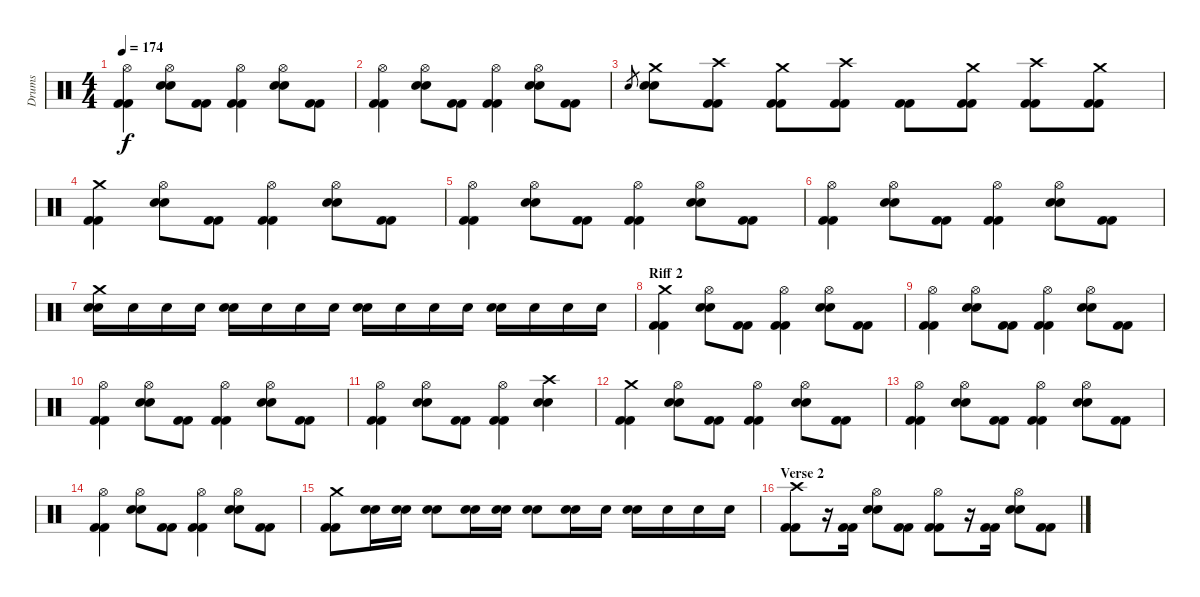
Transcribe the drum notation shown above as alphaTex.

\track ("Drums" "Drums") {instrument percussion}
\staff {score}
\articulation defaults
\ts (4 4)
\tempo 174
\clef neutral
\ks c
("Hi-Hat (open)" "Kick (hit) 2" "Kick (hit) 2").4{dy f} ("Hi-Hat (open)" "Snare (hit) 2" "Snare (hit) 2").8 ("Kick (hit) 2" "Kick (hit) 2").8 ("Hi-Hat (open)" "Kick (hit) 2" "Kick (hit) 2").4 ("Hi-Hat (open)" "Snare (hit) 2" "Snare (hit) 2").8 ("Kick (hit) 2" "Kick (hit) 2").8 |
("Hi-Hat (open)" "Kick (hit) 2" "Kick (hit) 2").4 ("Hi-Hat (open)" "Snare (hit) 2" "Snare (hit) 2").8 ("Kick (hit) 2" "Kick (hit) 2").8 ("Hi-Hat (open)" "Kick (hit) 2" "Kick (hit) 2").4 ("Hi-Hat (open)" "Snare (hit) 2" "Snare (hit) 2").8 ("Kick (hit) 2" "Kick (hit) 2").8 |
"Snare (hit) 2".8{gr} ("Crash medium (hit)" "Snare (hit) 2" "Snare (hit) 2").8 ("Crash high (hit)" "Kick (hit) 2" "Kick (hit) 2").8 ("Crash medium (hit)" "Kick (hit) 2" "Kick (hit) 2").8 ("Crash high (hit)" "Kick (hit) 2" "Kick (hit) 2").8 ("Kick (hit) 2" "Kick (hit) 2").8 ("Crash medium (hit)" "Kick (hit) 2" "Kick (hit) 2").8 ("Crash high (hit)" "Kick (hit) 2" "Kick (hit) 2").8 ("Crash medium (hit)" "Kick (hit) 2" "Kick (hit) 2").8 |
("Crash medium (hit)" "Kick (hit) 2" "Kick (hit) 2").4 ("Hi-Hat (open)" "Snare (hit) 2" "Snare (hit) 2").8 ("Kick (hit) 2" "Kick (hit) 2").8 ("Hi-Hat (open)" "Kick (hit) 2" "Kick (hit) 2").4 ("Hi-Hat (open)" "Snare (hit) 2" "Snare (hit) 2").8 ("Kick (hit) 2" "Kick (hit) 2").8 |
("Hi-Hat (open)" "Kick (hit) 2" "Kick (hit) 2").4 ("Hi-Hat (open)" "Snare (hit) 2" "Snare (hit) 2").8 ("Kick (hit) 2" "Kick (hit) 2").8 ("Hi-Hat (open)" "Kick (hit) 2" "Kick (hit) 2").4 ("Hi-Hat (open)" "Snare (hit) 2" "Snare (hit) 2").8 ("Kick (hit) 2" "Kick (hit) 2").8 |
("Hi-Hat (open)" "Kick (hit) 2" "Kick (hit) 2").4 ("Hi-Hat (open)" "Snare (hit) 2" "Snare (hit) 2").8 ("Kick (hit) 2" "Kick (hit) 2").8 ("Hi-Hat (open)" "Kick (hit) 2" "Kick (hit) 2").4 ("Hi-Hat (open)" "Snare (hit) 2" "Snare (hit) 2").8 ("Kick (hit) 2" "Kick (hit) 2").8 |
("Crash medium (hit)" "Snare (hit) 2" "Snare (hit) 2").16 "Snare (hit) 2".16 "Snare (hit) 2".16 "Snare (hit) 2".16 ("Snare (hit) 2" "Snare (hit) 2").16 "Snare (hit) 2".16 "Snare (hit) 2".16 "Snare (hit) 2".16 ("Snare (hit) 2" "Snare (hit) 2").16 "Snare (hit) 2".16 "Snare (hit) 2".16 "Snare (hit) 2".16 ("Snare (hit) 2" "Snare (hit) 2").16 "Snare (hit) 2".16 "Snare (hit) 2".16 "Snare (hit) 2".16 |
\section ("" "Riff 2")
("Crash medium (hit)" "Kick (hit) 2" "Kick (hit) 2").4 ("Hi-Hat (open)" "Snare (hit) 2" "Snare (hit) 2").8 ("Kick (hit) 2" "Kick (hit) 2").8 ("Hi-Hat (open)" "Kick (hit) 2" "Kick (hit) 2").4 ("Hi-Hat (open)" "Snare (hit) 2" "Snare (hit) 2").8 ("Kick (hit) 2" "Kick (hit) 2").8 |
("Hi-Hat (open)" "Kick (hit) 2" "Kick (hit) 2").4 ("Hi-Hat (open)" "Snare (hit) 2" "Snare (hit) 2").8 ("Kick (hit) 2" "Kick (hit) 2").8 ("Hi-Hat (open)" "Kick (hit) 2" "Kick (hit) 2").4 ("Hi-Hat (open)" "Snare (hit) 2" "Snare (hit) 2").8 ("Kick (hit) 2" "Kick (hit) 2").8 |
("Hi-Hat (open)" "Kick (hit) 2" "Kick (hit) 2").4 ("Hi-Hat (open)" "Snare (hit) 2" "Snare (hit) 2").8 ("Kick (hit) 2" "Kick (hit) 2").8 ("Hi-Hat (open)" "Kick (hit) 2" "Kick (hit) 2").4 ("Hi-Hat (open)" "Snare (hit) 2" "Snare (hit) 2").8 ("Kick (hit) 2" "Kick (hit) 2").8 |
("Hi-Hat (open)" "Kick (hit) 2" "Kick (hit) 2").4 ("Hi-Hat (open)" "Snare (hit) 2" "Snare (hit) 2").8 ("Kick (hit) 2" "Kick (hit) 2").8 ("Hi-Hat (open)" "Kick (hit) 2" "Kick (hit) 2").4 ("Crash high (hit)" "Snare (hit) 2" "Snare (hit) 2").4 |
("Crash medium (hit)" "Kick (hit) 2" "Kick (hit) 2").4 ("Hi-Hat (open)" "Snare (hit) 2" "Snare (hit) 2").8 ("Kick (hit) 2" "Kick (hit) 2").8 ("Hi-Hat (open)" "Kick (hit) 2" "Kick (hit) 2").4 ("Hi-Hat (open)" "Snare (hit) 2" "Snare (hit) 2").8 ("Kick (hit) 2" "Kick (hit) 2").8 |
("Hi-Hat (open)" "Kick (hit) 2" "Kick (hit) 2").4 ("Hi-Hat (open)" "Snare (hit) 2" "Snare (hit) 2").8 ("Kick (hit) 2" "Kick (hit) 2").8 ("Hi-Hat (open)" "Kick (hit) 2" "Kick (hit) 2").4 ("Hi-Hat (open)" "Snare (hit) 2" "Snare (hit) 2").8 ("Kick (hit) 2" "Kick (hit) 2").8 |
("Hi-Hat (open)" "Kick (hit) 2" "Kick (hit) 2").4 ("Hi-Hat (open)" "Snare (hit) 2" "Snare (hit) 2").8 ("Kick (hit) 2" "Kick (hit) 2").8 ("Hi-Hat (open)" "Kick (hit) 2" "Kick (hit) 2").4 ("Hi-Hat (open)" "Snare (hit) 2" "Snare (hit) 2").8 ("Kick (hit) 2" "Kick (hit) 2").8 |
("Crash medium (hit)" "Kick (hit) 2" "Kick (hit) 2").8 ("Snare (hit) 2" "Snare (hit) 2").16 ("Snare (hit) 2" "Snare (hit) 2").16 ("Snare (hit) 2" "Snare (hit) 2").8 ("Snare (hit) 2" "Snare (hit) 2").16 ("Snare (hit) 2" "Snare (hit) 2").16 ("Snare (hit) 2" "Snare (hit) 2").8 ("Snare (hit) 2" "Snare (hit) 2").16 "Snare (hit) 2".16 ("Snare (hit) 2" "Snare (hit) 2").16 "Snare (hit) 2".16 "Snare (hit) 2".16 "Snare (hit) 2".16 |
\section ("" "Verse 2")
("Crash high (hit)" "Kick (hit) 2" "Kick (hit) 2").8 r.16 ("Kick (hit) 2" "Kick (hit) 2").16 ("Hi-Hat (open)" "Snare (hit) 2" "Snare (hit) 2").8 ("Kick (hit) 2" "Kick (hit) 2").8 ("Hi-Hat (open)" "Kick (hit) 2" "Kick (hit) 2").8 r.16 ("Kick (hit) 2" "Kick (hit) 2").16 ("Hi-Hat (open)" "Snare (hit) 2" "Snare (hit) 2").8 ("Kick (hit) 2" "Kick (hit) 2").8
